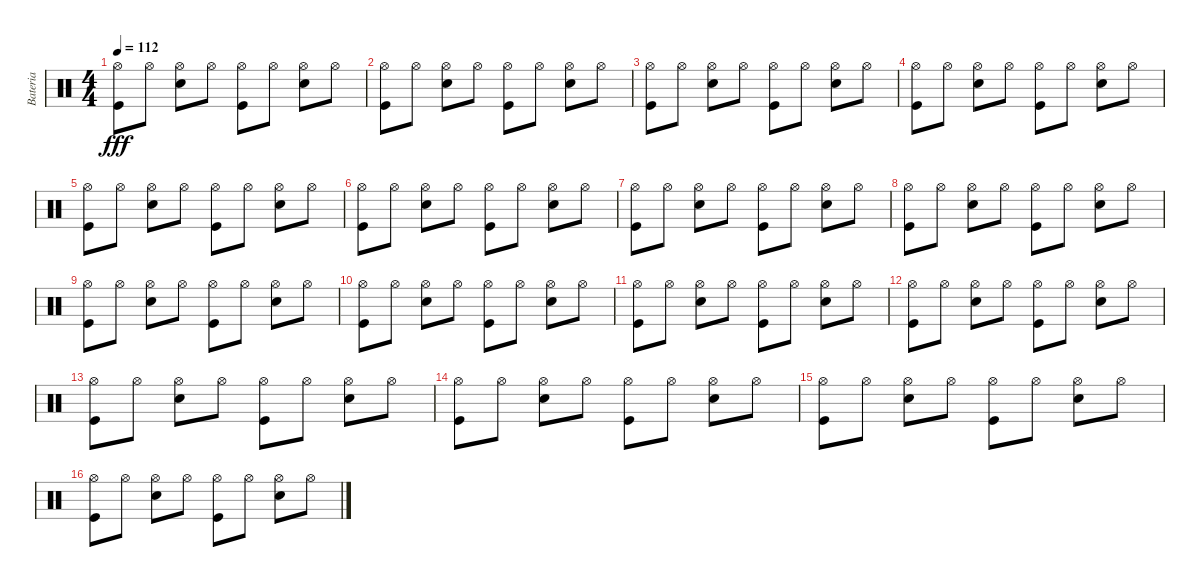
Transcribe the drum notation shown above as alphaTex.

\track ("Bateria" "Bateria") {instrument percussion}
\staff {score}
\articulation defaults
\ts (4 4)
\tempo 112
\clef neutral
\ks c
("Hi-Hat (open)" "Kick (hit)").8{dy fff} "Hi-Hat (open)".8 ("Hi-Hat (open)" "Snare (hit) 2").8 "Hi-Hat (open)".8 ("Hi-Hat (open)" "Kick (hit)").8 "Hi-Hat (open)".8 ("Hi-Hat (open)" "Snare (hit) 2").8 "Hi-Hat (open)".8 |
("Hi-Hat (open)" "Kick (hit)").8 "Hi-Hat (open)".8 ("Hi-Hat (open)" "Snare (hit) 2").8 "Hi-Hat (open)".8 ("Hi-Hat (open)" "Kick (hit)").8 "Hi-Hat (open)".8 ("Hi-Hat (open)" "Snare (hit) 2").8 "Hi-Hat (open)".8 |
("Hi-Hat (open)" "Kick (hit)").8 "Hi-Hat (open)".8 ("Hi-Hat (open)" "Snare (hit) 2").8 "Hi-Hat (open)".8 ("Hi-Hat (open)" "Kick (hit)").8 "Hi-Hat (open)".8 ("Hi-Hat (open)" "Snare (hit) 2").8 "Hi-Hat (open)".8 |
("Hi-Hat (open)" "Kick (hit)").8 "Hi-Hat (open)".8 ("Hi-Hat (open)" "Snare (hit) 2").8 "Hi-Hat (open)".8 ("Hi-Hat (open)" "Kick (hit)").8 "Hi-Hat (open)".8 ("Hi-Hat (open)" "Snare (hit) 2").8 "Hi-Hat (open)".8 |
("Hi-Hat (open)" "Kick (hit)").8 "Hi-Hat (open)".8 ("Hi-Hat (open)" "Snare (hit) 2").8 "Hi-Hat (open)".8 ("Hi-Hat (open)" "Kick (hit)").8 "Hi-Hat (open)".8 ("Hi-Hat (open)" "Snare (hit) 2").8 "Hi-Hat (open)".8 |
("Hi-Hat (open)" "Kick (hit)").8 "Hi-Hat (open)".8 ("Hi-Hat (open)" "Snare (hit) 2").8 "Hi-Hat (open)".8 ("Hi-Hat (open)" "Kick (hit)").8 "Hi-Hat (open)".8 ("Hi-Hat (open)" "Snare (hit) 2").8 "Hi-Hat (open)".8 |
("Hi-Hat (open)" "Kick (hit)").8 "Hi-Hat (open)".8 ("Hi-Hat (open)" "Snare (hit) 2").8 "Hi-Hat (open)".8 ("Hi-Hat (open)" "Kick (hit)").8 "Hi-Hat (open)".8 ("Hi-Hat (open)" "Snare (hit) 2").8 "Hi-Hat (open)".8 |
("Hi-Hat (open)" "Kick (hit)").8 "Hi-Hat (open)".8 ("Hi-Hat (open)" "Snare (hit) 2").8 "Hi-Hat (open)".8 ("Hi-Hat (open)" "Kick (hit)").8 "Hi-Hat (open)".8 ("Hi-Hat (open)" "Snare (hit) 2").8 "Hi-Hat (open)".8 |
("Hi-Hat (open)" "Kick (hit)").8 "Hi-Hat (open)".8 ("Hi-Hat (open)" "Snare (hit) 2").8 "Hi-Hat (open)".8 ("Hi-Hat (open)" "Kick (hit)").8 "Hi-Hat (open)".8 ("Hi-Hat (open)" "Snare (hit) 2").8 "Hi-Hat (open)".8 |
("Hi-Hat (open)" "Kick (hit)").8 "Hi-Hat (open)".8 ("Hi-Hat (open)" "Snare (hit) 2").8 "Hi-Hat (open)".8 ("Hi-Hat (open)" "Kick (hit)").8 "Hi-Hat (open)".8 ("Hi-Hat (open)" "Snare (hit) 2").8 "Hi-Hat (open)".8 |
("Hi-Hat (open)" "Kick (hit)").8 "Hi-Hat (open)".8 ("Hi-Hat (open)" "Snare (hit) 2").8 "Hi-Hat (open)".8 ("Hi-Hat (open)" "Kick (hit)").8 "Hi-Hat (open)".8 ("Hi-Hat (open)" "Snare (hit) 2").8 "Hi-Hat (open)".8 |
("Hi-Hat (open)" "Kick (hit)").8 "Hi-Hat (open)".8 ("Hi-Hat (open)" "Snare (hit) 2").8 "Hi-Hat (open)".8 ("Hi-Hat (open)" "Kick (hit)").8 "Hi-Hat (open)".8 ("Hi-Hat (open)" "Snare (hit) 2").8 "Hi-Hat (open)".8 |
("Hi-Hat (open)" "Kick (hit)").8 "Hi-Hat (open)".8 ("Hi-Hat (open)" "Snare (hit) 2").8 "Hi-Hat (open)".8 ("Hi-Hat (open)" "Kick (hit)").8 "Hi-Hat (open)".8 ("Hi-Hat (open)" "Snare (hit) 2").8 "Hi-Hat (open)".8 |
("Hi-Hat (open)" "Kick (hit)").8 "Hi-Hat (open)".8 ("Hi-Hat (open)" "Snare (hit) 2").8 "Hi-Hat (open)".8 ("Hi-Hat (open)" "Kick (hit)").8 "Hi-Hat (open)".8 ("Hi-Hat (open)" "Snare (hit) 2").8 "Hi-Hat (open)".8 |
("Hi-Hat (open)" "Kick (hit)").8 "Hi-Hat (open)".8 ("Hi-Hat (open)" "Snare (hit) 2").8 "Hi-Hat (open)".8 ("Hi-Hat (open)" "Kick (hit)").8 "Hi-Hat (open)".8 ("Hi-Hat (open)" "Snare (hit) 2").8 "Hi-Hat (open)".8 |
("Hi-Hat (open)" "Kick (hit)").8 "Hi-Hat (open)".8 ("Hi-Hat (open)" "Snare (hit) 2").8 "Hi-Hat (open)".8 ("Hi-Hat (open)" "Kick (hit)").8 "Hi-Hat (open)".8 ("Hi-Hat (open)" "Snare (hit) 2").8 "Hi-Hat (open)".8
